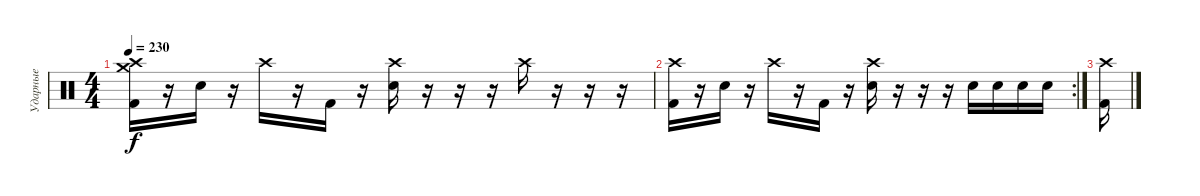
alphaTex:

\track ("Ударные" "Ударные") {instrument percussion}
\staff
\articulation defaults
\ts (4 4)
\tempo 230
\clef neutral
\ks c
("Crash medium (hit)" "Kick (hit) 2" "Crash high (hit)").16{dy f} r.16 "Electric Snare (hit)".16 r.16 "Crash high (hit)".16 r.16 "Kick (hit) 2".16 r.16 ("Crash high (hit)" "Electric Snare (hit)").16 r.16 r.16 r.16 "Crash high (hit)".16 r.16 r.16 r.16 |
\rc 2
("Crash high (hit)" "Kick (hit) 2").16 r.16 "Electric Snare (hit)".16 r.16 "Crash high (hit)".16 r.16 "Kick (hit) 2".16 r.16 ("Crash high (hit)" "Electric Snare (hit)").16 r.16 r.16 r.16 "Electric Snare (hit)".16 "Electric Snare (hit)".16 "Electric Snare (hit)".16 "Electric Snare (hit)".16 |
("Crash high (hit)" "Kick (hit) 2").16
